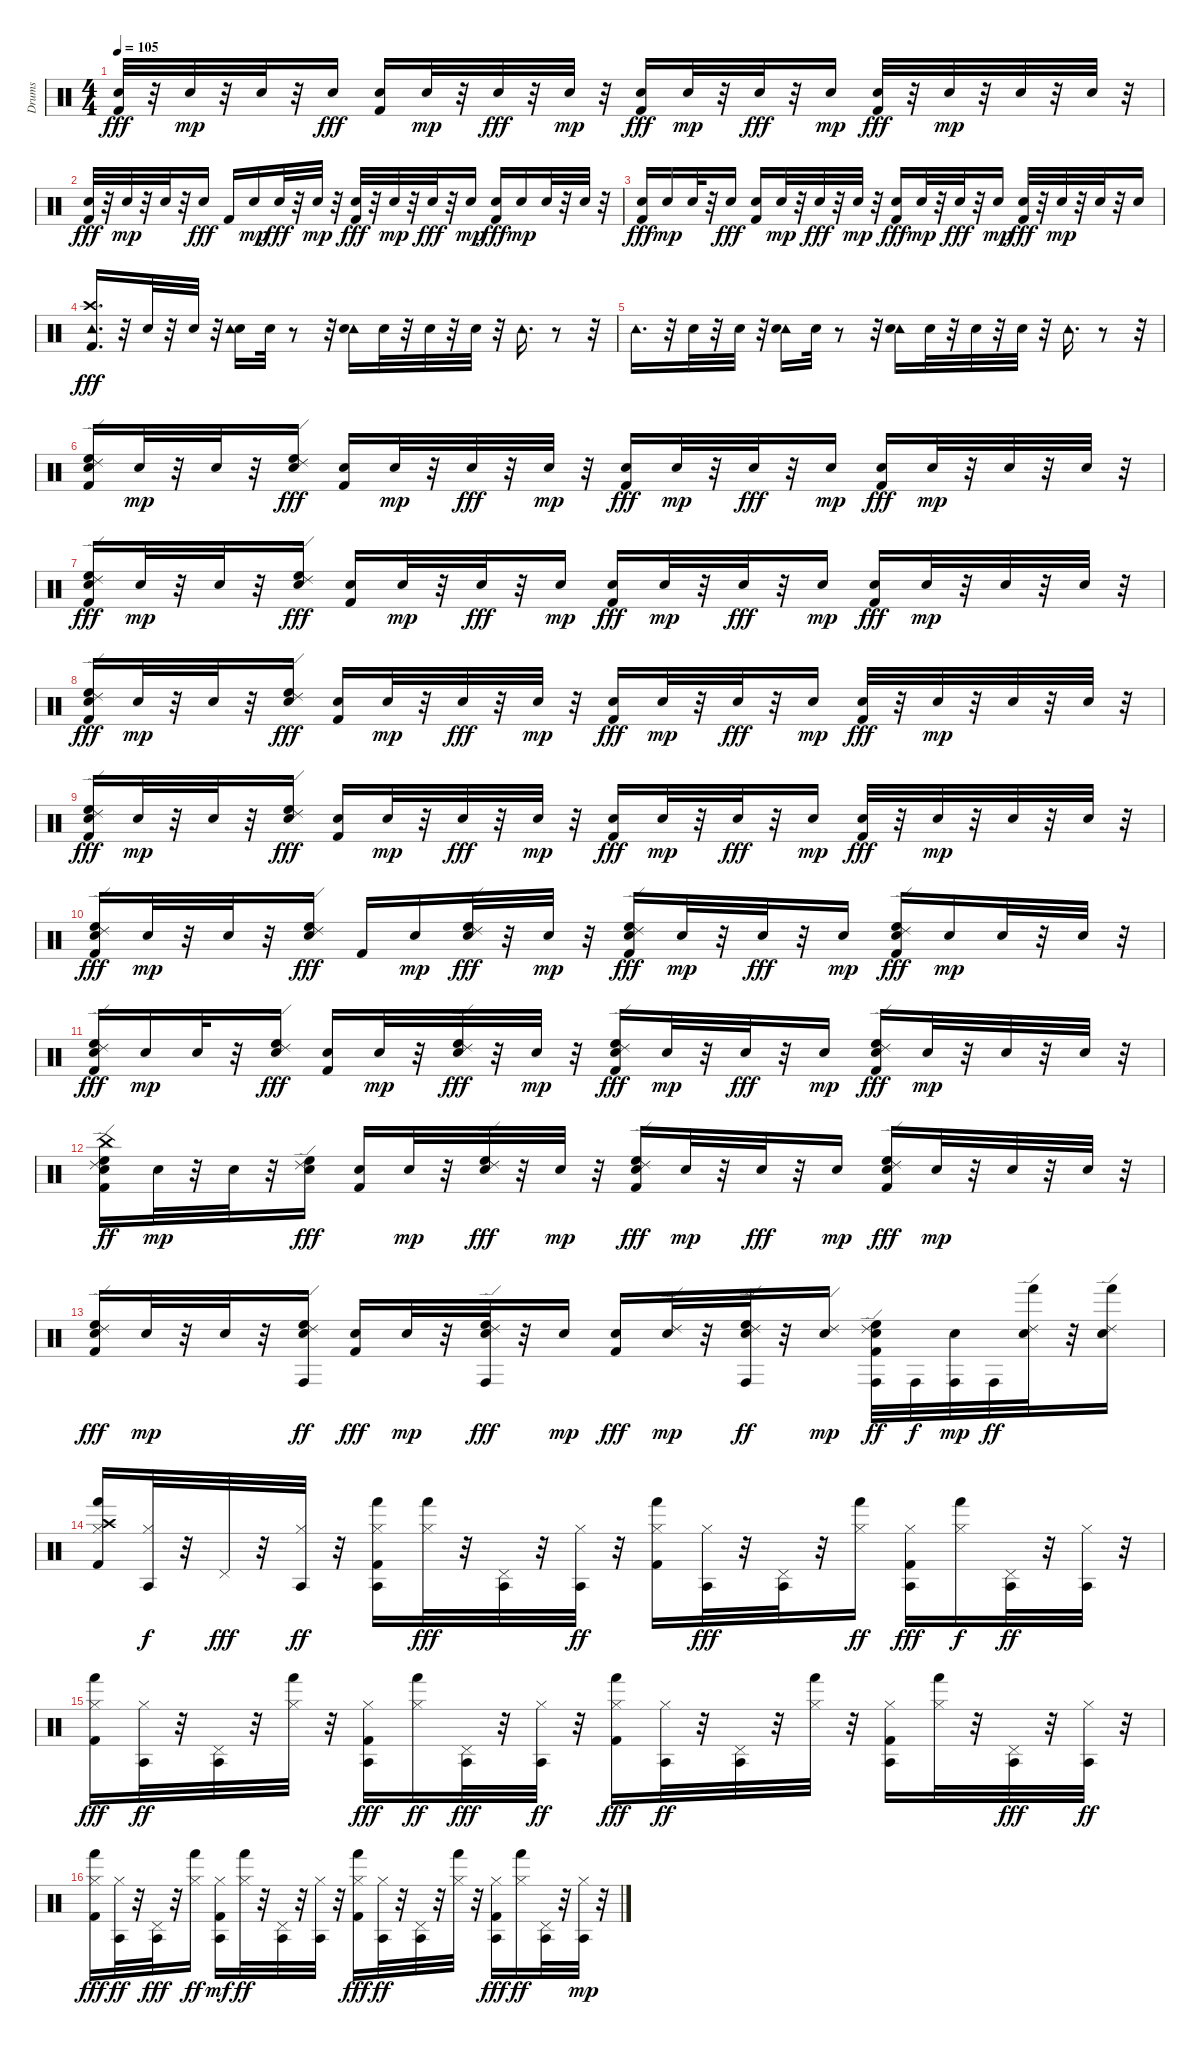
\track ("Drums" "Drums") {instrument percussion}
\staff {score}
\articulation defaults
\ts (4 4)
\tempo 105
\clef neutral
\ks c
("Kick (hit) 2" "Snare (hit) 2").32{dy fff} r.32 "Snare (hit) 2".32{dy mp} r.32 "Snare (hit) 2".32 r.32 "Snare (hit) 2".16{dy fff} ("Snare (hit) 2" "Kick (hit) 2").16 "Snare (hit) 2".32{dy mp} r.32 "Snare (hit) 2".32{dy fff} r.32 "Snare (hit) 2".32{dy mp} r.32 ("Snare (hit) 2" "Kick (hit) 2").16{dy fff} "Snare (hit) 2".32{dy mp} r.32 "Snare (hit) 2".32{dy fff} r.32 "Snare (hit) 2".16{dy mp} ("Kick (hit) 2" "Snare (hit) 2").32{dy fff} r.32 "Snare (hit) 2".32{dy mp} r.32 "Snare (hit) 2".32 r.32 "Snare (hit) 2".32 r.32 |
("Snare (hit) 2" "Kick (hit) 2").32{dy fff} r.32 "Snare (hit) 2".32{dy mp} r.32 "Snare (hit) 2".32 r.32 "Snare (hit) 2".16{dy fff} "Kick (hit) 2".16 "Snare (hit) 2".16{dy mp} "Snare (hit) 2".32{dy fff} r.32 "Snare (hit) 2".32{dy mp} r.32 ("Snare (hit) 2" "Kick (hit) 2").32{dy fff} r.32 "Snare (hit) 2".32{dy mp} r.32 "Snare (hit) 2".32{dy fff} r.32 "Snare (hit) 2".16{dy mp} ("Snare (hit) 2" "Kick (hit) 2").16{dy fff} "Snare (hit) 2".16{dy mp} "Snare (hit) 2".32 r.32 "Snare (hit) 2".32 r.32 |
("Snare (hit) 2" "Kick (hit) 2").16{dy fff} "Snare (hit) 2".16{dy mp} "Snare (hit) 2".32 r.32 "Snare (hit) 2".16{dy fff} ("Snare (hit) 2" "Kick (hit) 2").16 "Snare (hit) 2".32{dy mp} r.32 "Snare (hit) 2".32{dy fff} r.32 "Snare (hit) 2".32{dy mp} r.32 ("Snare (hit) 2" "Kick (hit) 2").16{dy fff} "Snare (hit) 2".32{dy mp} r.32 "Snare (hit) 2".32{dy fff} r.32 "Snare (hit) 2".16{dy mp} ("Snare (hit) 2" "Kick (hit) 2").32{dy fff} r.32 "Snare (hit) 2".32{dy mp} r.32 "Snare (hit) 2".32 r.32 "Snare (hit) 2".16 |
("Crash high (hit)" "Kick (hit) 2" "Tambourine (hit)").16{d dy fff} r.32 "Snare (hit) 2".32 r.32 "Snare (hit) 2".32 r.32 ("Snare (hit) 2" "Tambourine (hit)").16 "Snare (hit) 2".32 r.8 r.32 ("Tambourine (hit)" "Snare (hit) 2").16 "Snare (hit) 2".32 r.32 "Snare (hit) 2".32 r.32 "Snare (hit) 2".32 r.32 "Tambourine (hit)".16{d} r.8 r.32 |
"Tambourine (hit)".16{d} r.32 "Snare (hit) 2".32 r.32 "Snare (hit) 2".32 r.32 ("Tambourine (hit)" "Snare (hit) 2").16 "Snare (hit) 2".32 r.8 r.32 ("Tambourine (hit)" "Snare (hit) 2").16 "Snare (hit) 2".32 r.32 "Snare (hit) 2".32 r.32 "Snare (hit) 2".32 r.32 "Tambourine (hit)".16{d} r.8 r.32 |
("High Floor Tom (hit)" "Ride (edge) 2" "Snare (hit) 2" "Kick (hit) 2").16 "Snare (hit) 2".32{dy mp} r.32 "Snare (hit) 2".32 r.32 ("Ride (edge) 2" "High Floor Tom (hit)" "Snare (hit) 2").16{dy fff} ("Snare (hit) 2" "Kick (hit) 2").16 "Snare (hit) 2".32{dy mp} r.32 "Snare (hit) 2".32{dy fff} r.32 "Snare (hit) 2".32{dy mp} r.32 ("Snare (hit) 2" "Kick (hit) 2").16{dy fff} "Snare (hit) 2".32{dy mp} r.32 "Snare (hit) 2".32{dy fff} r.32 "Snare (hit) 2".16{dy mp} ("Snare (hit) 2" "Kick (hit) 2").16{dy fff} "Snare (hit) 2".32{dy mp} r.32 "Snare (hit) 2".32 r.32 "Snare (hit) 2".32 r.32 |
("High Floor Tom (hit)" "Ride (edge) 2" "Snare (hit) 2" "Kick (hit) 2").16{dy fff} "Snare (hit) 2".32{dy mp} r.32 "Snare (hit) 2".32 r.32 ("Ride (edge) 2" "High Floor Tom (hit)" "Snare (hit) 2").16{dy fff} ("Snare (hit) 2" "Kick (hit) 2").16 "Snare (hit) 2".32{dy mp} r.32 "Snare (hit) 2".32{dy fff} r.32 "Snare (hit) 2".16{dy mp} ("Snare (hit) 2" "Kick (hit) 2").16{dy fff} "Snare (hit) 2".32{dy mp} r.32 "Snare (hit) 2".32{dy fff} r.32 "Snare (hit) 2".16{dy mp} ("Snare (hit) 2" "Kick (hit) 2").16{dy fff} "Snare (hit) 2".32{dy mp} r.32 "Snare (hit) 2".32 r.32 "Snare (hit) 2".32 r.32 |
("High Floor Tom (hit)" "Ride (edge) 2" "Kick (hit) 2" "Snare (hit) 2").16{dy fff} "Snare (hit) 2".32{dy mp} r.32 "Snare (hit) 2".32 r.32 ("High Floor Tom (hit)" "Ride (edge) 2" "Snare (hit) 2").16{dy fff} ("Snare (hit) 2" "Kick (hit) 2").16 "Snare (hit) 2".32{dy mp} r.32 "Snare (hit) 2".32{dy fff} r.32 "Snare (hit) 2".32{dy mp} r.32 ("Snare (hit) 2" "Kick (hit) 2").16{dy fff} "Snare (hit) 2".32{dy mp} r.32 "Snare (hit) 2".32{dy fff} r.32 "Snare (hit) 2".16{dy mp} ("Kick (hit) 2" "Snare (hit) 2").32{dy fff} r.32 "Snare (hit) 2".32{dy mp} r.32 "Snare (hit) 2".32 r.32 "Snare (hit) 2".32 r.32 |
("High Floor Tom (hit)" "Ride (edge) 2" "Kick (hit) 2" "Snare (hit) 2").16{dy fff} "Snare (hit) 2".32{dy mp} r.32 "Snare (hit) 2".32 r.32 ("High Floor Tom (hit)" "Ride (edge) 2" "Snare (hit) 2").16{dy fff} ("Snare (hit) 2" "Kick (hit) 2").16 "Snare (hit) 2".32{dy mp} r.32 "Snare (hit) 2".32{dy fff} r.32 "Snare (hit) 2".32{dy mp} r.32 ("Snare (hit) 2" "Kick (hit) 2").16{dy fff} "Snare (hit) 2".32{dy mp} r.32 "Snare (hit) 2".32{dy fff} r.32 "Snare (hit) 2".16{dy mp} ("Kick (hit) 2" "Snare (hit) 2").32{dy fff} r.32 "Snare (hit) 2".32{dy mp} r.32 "Snare (hit) 2".32 r.32 "Snare (hit) 2".32 r.32 |
("Ride (edge) 2" "High Floor Tom (hit)" "Snare (hit) 2" "Kick (hit) 2").16{dy fff} "Snare (hit) 2".32{dy mp} r.32 "Snare (hit) 2".32 r.32 ("High Floor Tom (hit)" "Ride (edge) 2" "Snare (hit) 2").16{dy fff} "Kick (hit) 2".16 "Snare (hit) 2".16{dy mp} ("Ride (edge) 2" "High Floor Tom (hit)" "Snare (hit) 2").32{dy fff} r.32 "Snare (hit) 2".32{dy mp} r.32 ("Ride (edge) 2" "High Floor Tom (hit)" "Snare (hit) 2" "Kick (hit) 2").16{dy fff} "Snare (hit) 2".32{dy mp} r.32 "Snare (hit) 2".32{dy fff} r.32 "Snare (hit) 2".16{dy mp} ("High Floor Tom (hit)" "Ride (edge) 2" "Snare (hit) 2" "Kick (hit) 2").16{dy fff} "Snare (hit) 2".16{dy mp} "Snare (hit) 2".32 r.32 "Snare (hit) 2".32 r.32 |
("Ride (edge) 2" "High Floor Tom (hit)" "Snare (hit) 2" "Kick (hit) 2").16{dy fff} "Snare (hit) 2".16{dy mp} "Snare (hit) 2".32 r.32 ("High Floor Tom (hit)" "Ride (edge) 2" "Snare (hit) 2").16{dy fff} ("Snare (hit) 2" "Kick (hit) 2").16 "Snare (hit) 2".32{dy mp} r.32 ("High Floor Tom (hit)" "Ride (edge) 2" "Snare (hit) 2").32{dy fff} r.32 "Snare (hit) 2".32{dy mp} r.32 ("Ride (edge) 2" "High Floor Tom (hit)" "Snare (hit) 2" "Kick (hit) 2").16{dy fff} "Snare (hit) 2".32{dy mp} r.32 "Snare (hit) 2".32{dy fff} r.32 "Snare (hit) 2".16{dy mp} ("High Floor Tom (hit)" "Ride (edge) 2" "Snare (hit) 2" "Kick (hit) 2").16{dy fff} "Snare (hit) 2".32{dy mp} r.32 "Snare (hit) 2".32 r.32 "Snare (hit) 2".32 r.32 |
("Snare (hit) 2" "Kick (hit) 2" "Ride (edge) 2" "High Floor Tom (hit)" "China (hit)").16{dy ff} "Snare (hit) 2".32{dy mp} r.32 "Snare (hit) 2".32 r.32 ("Ride (edge) 2" "High Floor Tom (hit)" "Snare (hit) 2").16{dy fff} ("Snare (hit) 2" "Kick (hit) 2").16 "Snare (hit) 2".32{dy mp} r.32 ("High Floor Tom (hit)" "Ride (edge) 2" "Snare (hit) 2").32{dy fff} r.32 "Snare (hit) 2".32{dy mp} r.32 ("Ride (edge) 2" "High Floor Tom (hit)" "Snare (hit) 2" "Kick (hit) 2").16{dy fff} "Snare (hit) 2".32{dy mp} r.32 "Snare (hit) 2".32{dy fff} r.32 "Snare (hit) 2".16{dy mp} ("High Floor Tom (hit)" "Ride (edge) 2" "Snare (hit) 2" "Kick (hit) 2").16{dy fff} "Snare (hit) 2".32{dy mp} r.32 "Snare (hit) 2".32 r.32 "Snare (hit) 2".32 r.32 |
("Snare (hit) 2" "Kick (hit) 2" "Ride (edge) 2" "High Floor Tom (hit)").16{dy fff} "Snare (hit) 2".32{dy mp} r.32 "Snare (hit) 2".32 r.32 ("High Floor Tom (hit)" "Ride (edge) 2" "Snare (hit) 2" "Conga high (hit)").16{dy ff} ("Snare (hit) 2" "Kick (hit) 2").16{dy fff} "Snare (hit) 2".32{dy mp} r.32 ("High Floor Tom (hit)" "Ride (edge) 2" "Snare (hit) 2" "Conga high (hit)").32{dy fff} r.32 "Snare (hit) 2".16{dy mp} ("Snare (hit) 2" "Kick (hit) 2").16{dy fff} ("Ride (edge) 2" "Snare (hit) 2").32{dy mp} r.32 ("Snare (hit) 2" "Ride (edge) 2" "High Floor Tom (hit)" "Conga high (hit)").32{dy ff} r.32 ("Ride (edge) 2" "Snare (hit) 2").16{dy mp} ("High Floor Tom (hit)" "Ride (edge) 2" "Snare (hit) 2" "Kick (hit) 2" "Conga high (hit)").32{dy ff} "Conga high (hit)".32{dy f} ("Snare (hit) 2" "Conga high (hit)").32{dy mp} "Conga high (hit)".32{dy ff} ("Ride (edge) 2" "Snare (hit) 2" "Hand (hit)").32 r.32 ("Ride (edge) 2" "Snare (hit) 2" "Hand (hit)").16 |
("Kick (hit) 2" "Crash high (hit)" "Hi-Hat (closed)" "Hand (hit)").16 ("Hi-Hat (closed)" "Agogo tow (hit)").32{dy f} r.32 "Pedal Hi-Hat (hit)".32{dy fff} r.32 ("Agogo tow (hit)" "Hi-Hat (closed)").32{dy ff} r.32 ("Hand (hit)" "Kick (hit) 2" "Hi-Hat (closed)" "Agogo tow (hit)").16 ("Hi-Hat (closed)" "Hand (hit)").32{dy fff} r.32 ("Pedal Hi-Hat (hit)" "Agogo tow (hit)").32 r.32 ("Hi-Hat (closed)" "Agogo tow (hit)").32{dy ff} r.32 ("Hand (hit)" "Kick (hit) 2" "Hi-Hat (closed)").16 ("Agogo tow (hit)" "Hi-Hat (closed)").32{dy fff} r.32 ("Agogo tow (hit)" "Pedal Hi-Hat (hit)").32 r.32 ("Hand (hit)" "Hi-Hat (closed)").16{dy ff} ("Agogo tow (hit)" "Kick (hit) 2" "Hi-Hat (closed)").16{dy fff} ("Hand (hit)" "Hi-Hat (closed)").16{dy f} ("Agogo tow (hit)" "Pedal Hi-Hat (hit)").32{dy ff} r.32 ("Agogo tow (hit)" "Hi-Hat (closed)").32 r.32 |
("Hand (hit)" "Hi-Hat (closed)" "Kick (hit) 2").16{dy fff} ("Agogo tow (hit)" "Hi-Hat (closed)").32{dy ff} r.32 ("Agogo tow (hit)" "Pedal Hi-Hat (hit)").32 r.32 ("Hi-Hat (closed)" "Hand (hit)").32 r.32 ("Agogo tow (hit)" "Hi-Hat (closed)" "Kick (hit) 2").16{dy fff} ("Hand (hit)" "Hi-Hat (closed)").16{dy ff} ("Agogo tow (hit)" "Pedal Hi-Hat (hit)").32{dy fff} r.32 ("Agogo tow (hit)" "Hi-Hat (closed)").32{dy ff} r.32 ("Hand (hit)" "Kick (hit) 2" "Hi-Hat (closed)").16{dy fff} ("Agogo tow (hit)" "Hi-Hat (closed)").32{dy ff} r.32 ("Agogo tow (hit)" "Pedal Hi-Hat (hit)").32 r.32 ("Hi-Hat (closed)" "Hand (hit)").32 r.32 ("Agogo tow (hit)" "Kick (hit) 2" "Hi-Hat (closed)").16 ("Hand (hit)" "Hi-Hat (closed)").32 r.32 ("Agogo tow (hit)" "Pedal Hi-Hat (hit)").32{dy fff} r.32 ("Agogo tow (hit)" "Hi-Hat (closed)").32{dy ff} r.32 |
("Hand (hit)" "Hi-Hat (closed)" "Kick (hit) 2").16{dy fff} ("Agogo tow (hit)" "Hi-Hat (closed)").32{dy ff} r.32 ("Agogo tow (hit)" "Pedal Hi-Hat (hit)").32{dy fff} r.32 ("Hi-Hat (closed)" "Hand (hit)").16{dy ff} ("Hi-Hat (closed)" "Kick (hit) 2" "Agogo tow (hit)").16{dy mf} ("Hi-Hat (closed)" "Hand (hit)").32{dy ff} r.32 ("Agogo tow (hit)" "Pedal Hi-Hat (hit)").32 r.32 ("Agogo tow (hit)" "Hi-Hat (closed)").32 r.32 ("Hand (hit)" "Hi-Hat (closed)" "Kick (hit) 2").16{dy fff} ("Agogo tow (hit)" "Hi-Hat (closed)").32{dy ff} r.32 ("Agogo tow (hit)" "Pedal Hi-Hat (hit)").32 r.32 ("Hand (hit)" "Hi-Hat (closed)").32 r.32 ("Hi-Hat (closed)" "Kick (hit) 2" "Agogo tow (hit)").16{dy fff} ("Hand (hit)" "Hi-Hat (closed)").16{dy ff} ("Agogo tow (hit)" "Pedal Hi-Hat (hit)").32 r.32 ("Agogo tow (hit)" "Hi-Hat (closed)").32{dy mp} r.32
